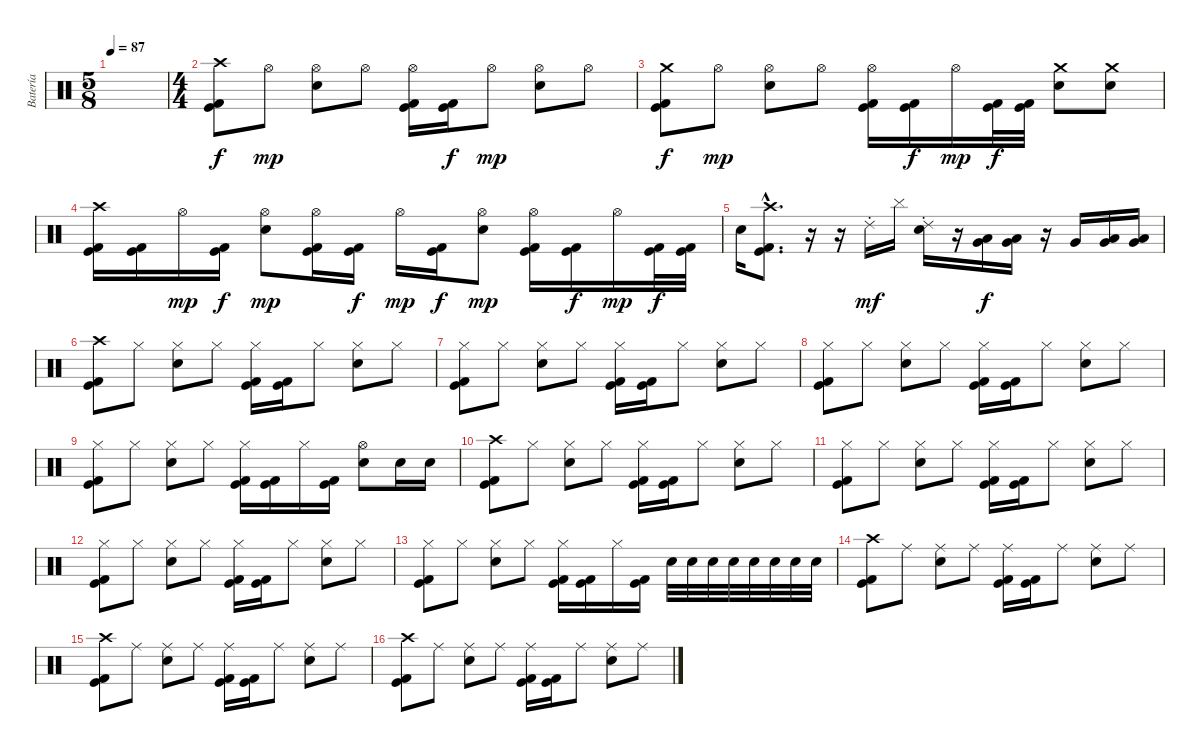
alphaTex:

\track ("Batería" "Batería") {instrument percussion}
\staff {score}
\articulation defaults
\ts (5 8)
\tempo 87
\clef neutral
\ks c
|
\ts (4 4)
("Crash high (hit)" "Kick (hit)" "Kick (hit) 2").8{volume 16} "Hi-Hat (open)".8{dy mp} ("Hi-Hat (open)" "Electric Snare (hit)").8 "Hi-Hat (open)".8 ("Hi-Hat (open)" "Kick (hit)" "Kick (hit) 2").16 ("Kick (hit)" "Kick (hit) 2").16{dy f} "Hi-Hat (open)".8{dy mp} ("Hi-Hat (open)" "Electric Snare (hit)").8 "Hi-Hat (open)".8 |
("Crash medium (hit)" "Kick (hit)" "Kick (hit) 2").8{dy f} "Hi-Hat (open)".8{dy mp} ("Hi-Hat (open)" "Electric Snare (hit)").8 "Hi-Hat (open)".8 ("Hi-Hat (open)" "Kick (hit)" "Kick (hit) 2").16 ("Kick (hit)" "Kick (hit) 2").16{dy f} "Hi-Hat (open)".16{dy mp} ("Kick (hit)" "Kick (hit) 2").32{dy f} ("Kick (hit)" "Kick (hit) 2").32 ("Crash medium (hit)" "Electric Snare (hit)").8 ("Crash medium (hit)" "Electric Snare (hit)").8 |
("Crash high (hit)" "Kick (hit)" "Kick (hit) 2").16 ("Kick (hit)" "Kick (hit) 2").16 "Hi-Hat (open)".16{dy mp} ("Kick (hit)" "Kick (hit) 2").16{dy f} ("Hi-Hat (open)" "Electric Snare (hit)").8{dy mp} ("Hi-Hat (open)" "Kick (hit)" "Kick (hit) 2").16 ("Kick (hit)" "Kick (hit) 2").16{dy f} "Hi-Hat (open)".16{dy mp} ("Kick (hit)" "Kick (hit) 2").16{dy f} ("Hi-Hat (open)" "Electric Snare (hit)").8{dy mp} ("Hi-Hat (open)" "Kick (hit)" "Kick (hit) 2").16 ("Kick (hit)" "Kick (hit) 2").16{dy f} "Hi-Hat (open)".16{dy mp} ("Kick (hit)" "Kick (hit) 2").32{dy f} ("Kick (hit)" "Kick (hit) 2").32 |
"Electric Snare (hit)".16 ("Crash high (hit)"{hac} "Kick (hit)"{hac} "Kick (hit) 2"{hac}).8{d} r.16 r.16 "Ride (choke) 2".16{dy mf} "Cymbal (hit)".16 ("Ride (choke) 2" "Electric Snare (hit)").16 r.16 ("Low Tom (hit)" "Very Low Tom (hit)").16{dy f} ("Low Tom (hit)" "Very Low Tom (hit)").16 r.16 "Very Low Tom (hit)".16 ("Very Low Tom (hit)" "Low Floor Tom (hit)").16 ("Very Low Tom (hit)" "Low Floor Tom (hit)").16 |
("Crash high (hit)" "Kick (hit)" "Kick (hit) 2").8 "Hi-Hat (closed)".8 ("Hi-Hat (closed)" "Electric Snare (hit)").8 "Hi-Hat (closed)".8 ("Hi-Hat (closed)" "Kick (hit)" "Kick (hit) 2").16 ("Kick (hit)" "Kick (hit) 2").16 "Hi-Hat (closed)".8 ("Hi-Hat (closed)" "Electric Snare (hit)").8 "Hi-Hat (closed)".8 |
("Hi-Hat (closed)" "Kick (hit)" "Kick (hit) 2").8 "Hi-Hat (closed)".8 ("Hi-Hat (closed)" "Electric Snare (hit)").8 "Hi-Hat (closed)".8 ("Hi-Hat (closed)" "Kick (hit)" "Kick (hit) 2").16 ("Kick (hit)" "Kick (hit) 2").16 "Hi-Hat (closed)".8 ("Hi-Hat (closed)" "Electric Snare (hit)").8 "Hi-Hat (closed)".8 |
("Hi-Hat (closed)" "Kick (hit)" "Kick (hit) 2").8 "Hi-Hat (closed)".8 ("Hi-Hat (closed)" "Electric Snare (hit)").8 "Hi-Hat (closed)".8 ("Hi-Hat (closed)" "Kick (hit)" "Kick (hit) 2").16 ("Kick (hit)" "Kick (hit) 2").16 "Hi-Hat (closed)".8 ("Hi-Hat (closed)" "Electric Snare (hit)").8 "Hi-Hat (closed)".8 |
("Hi-Hat (closed)" "Kick (hit)" "Kick (hit) 2").8 "Hi-Hat (closed)".8 ("Hi-Hat (closed)" "Electric Snare (hit)").8 "Hi-Hat (closed)".8 ("Hi-Hat (closed)" "Kick (hit)" "Kick (hit) 2").16 ("Kick (hit)" "Kick (hit) 2").16 "Hi-Hat (closed)".16 ("Kick (hit)" "Kick (hit) 2").16 ("Hi-Hat (open)" "Electric Snare (hit)").8 "Electric Snare (hit)".16 "Electric Snare (hit)".16 |
("Crash high (hit)" "Kick (hit)" "Kick (hit) 2").8 "Hi-Hat (closed)".8 ("Hi-Hat (closed)" "Electric Snare (hit)").8 "Hi-Hat (closed)".8 ("Hi-Hat (closed)" "Kick (hit)" "Kick (hit) 2").16 ("Kick (hit)" "Kick (hit) 2").16 "Hi-Hat (closed)".8 ("Hi-Hat (closed)" "Electric Snare (hit)").8 "Hi-Hat (closed)".8 |
("Hi-Hat (closed)" "Kick (hit)" "Kick (hit) 2").8 "Hi-Hat (closed)".8 ("Hi-Hat (closed)" "Electric Snare (hit)").8 "Hi-Hat (closed)".8 ("Hi-Hat (closed)" "Kick (hit)" "Kick (hit) 2").16 ("Kick (hit)" "Kick (hit) 2").16 "Hi-Hat (closed)".8 ("Hi-Hat (closed)" "Electric Snare (hit)").8 "Hi-Hat (closed)".8 |
("Hi-Hat (closed)" "Kick (hit)" "Kick (hit) 2").8 "Hi-Hat (closed)".8 ("Hi-Hat (closed)" "Electric Snare (hit)").8 "Hi-Hat (closed)".8 ("Hi-Hat (closed)" "Kick (hit)" "Kick (hit) 2").16 ("Kick (hit)" "Kick (hit) 2").16 "Hi-Hat (closed)".8 ("Hi-Hat (closed)" "Electric Snare (hit)").8 "Hi-Hat (closed)".8 |
("Hi-Hat (closed)" "Kick (hit)" "Kick (hit) 2").8 "Hi-Hat (closed)".8 ("Hi-Hat (closed)" "Electric Snare (hit)").8 "Hi-Hat (closed)".8 ("Hi-Hat (closed)" "Kick (hit)" "Kick (hit) 2").16 ("Kick (hit)" "Kick (hit) 2").16 "Hi-Hat (closed)".16 ("Kick (hit)" "Kick (hit) 2").16 "Electric Snare (hit)".32 "Electric Snare (hit)".32 "Electric Snare (hit)".32 "Electric Snare (hit)".32 "Electric Snare (hit)".32 "Electric Snare (hit)".32 "Electric Snare (hit)".32 "Electric Snare (hit)".32 |
("Crash high (hit)" "Kick (hit)" "Kick (hit) 2").8 "Ride (middle)".8 ("Ride (middle)" "Electric Snare (hit)").8 "Ride (middle)".8 ("Ride (middle)" "Kick (hit)" "Kick (hit) 2").16 ("Kick (hit)" "Kick (hit) 2").16 "Ride (middle)".8 ("Ride (middle)" "Electric Snare (hit)").8 "Ride (middle)".8 |
("Crash high (hit)" "Kick (hit)" "Kick (hit) 2").8 "Ride (middle)".8 ("Ride (middle)" "Electric Snare (hit)").8 "Ride (middle)".8 ("Ride (middle)" "Kick (hit)" "Kick (hit) 2").16 ("Kick (hit)" "Kick (hit) 2").16 "Ride (middle)".8 ("Ride (middle)" "Electric Snare (hit)").8 "Ride (middle)".8 |
("Crash high (hit)" "Kick (hit)" "Kick (hit) 2").8 "Ride (middle)".8 ("Ride (middle)" "Electric Snare (hit)").8 "Ride (middle)".8 ("Ride (middle)" "Kick (hit)" "Kick (hit) 2").16 ("Kick (hit)" "Kick (hit) 2").16 "Ride (middle)".8 ("Ride (middle)" "Electric Snare (hit)").8 "Ride (middle)".8
